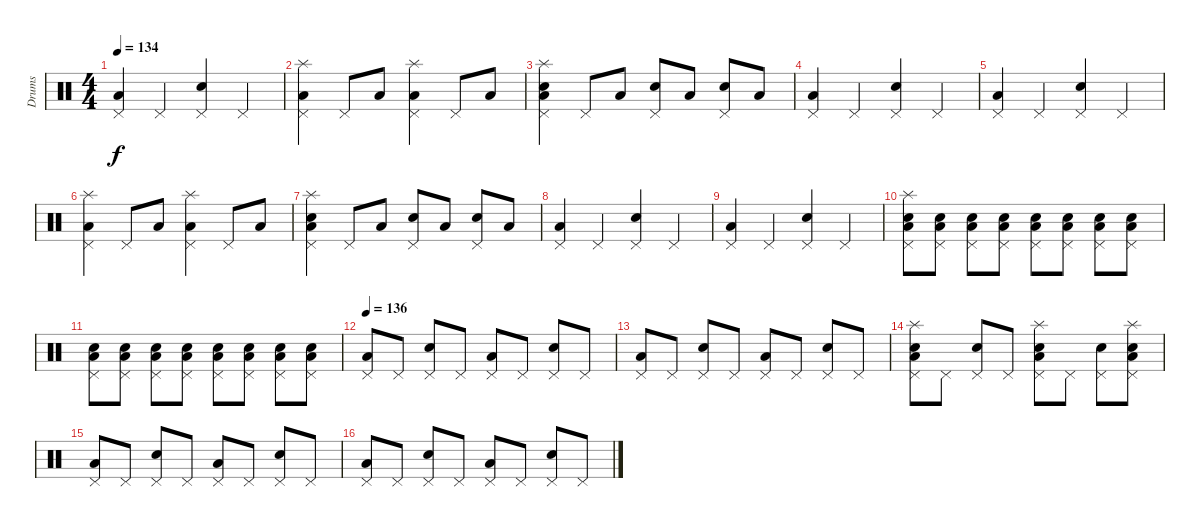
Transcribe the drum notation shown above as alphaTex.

\track ("Drums" "Drums") {instrument percussion}
\staff {score}
\articulation defaults
\ts (4 4)
\tempo 134
\clef neutral
\ks c
("Low Floor Tom (hit)" "Pedal Hi-Hat (hit)").4{dy f} "Pedal Hi-Hat (hit)".4 ("Electric Snare (hit)" "Pedal Hi-Hat (hit)").4 "Pedal Hi-Hat (hit)".4 |
("Low Floor Tom (hit)" "Pedal Hi-Hat (hit)" "Splash (hit)").4 "Pedal Hi-Hat (hit)".8 "Low Floor Tom (hit)".8 ("Low Floor Tom (hit)" "Pedal Hi-Hat (hit)" "Splash (hit)").4 "Pedal Hi-Hat (hit)".8 "Low Floor Tom (hit)".8 |
("Electric Snare (hit)" "Low Floor Tom (hit)" "Pedal Hi-Hat (hit)" "Splash (hit)").4 "Pedal Hi-Hat (hit)".8 "Low Floor Tom (hit)".8 ("Electric Snare (hit)" "Pedal Hi-Hat (hit)").8 "Low Floor Tom (hit)".8 ("Electric Snare (hit)" "Pedal Hi-Hat (hit)").8 "Low Floor Tom (hit)".8 |
("Low Floor Tom (hit)" "Pedal Hi-Hat (hit)").4 "Pedal Hi-Hat (hit)".4 ("Electric Snare (hit)" "Pedal Hi-Hat (hit)").4 "Pedal Hi-Hat (hit)".4 |
("Low Floor Tom (hit)" "Pedal Hi-Hat (hit)").4 "Pedal Hi-Hat (hit)".4 ("Electric Snare (hit)" "Pedal Hi-Hat (hit)").4 "Pedal Hi-Hat (hit)".4 |
("Low Floor Tom (hit)" "Pedal Hi-Hat (hit)" "Splash (hit)").4 "Pedal Hi-Hat (hit)".8 "Low Floor Tom (hit)".8 ("Low Floor Tom (hit)" "Pedal Hi-Hat (hit)" "Splash (hit)").4 "Pedal Hi-Hat (hit)".8 "Low Floor Tom (hit)".8 |
("Electric Snare (hit)" "Low Floor Tom (hit)" "Pedal Hi-Hat (hit)" "Splash (hit)").4 "Pedal Hi-Hat (hit)".8 "Low Floor Tom (hit)".8 ("Electric Snare (hit)" "Pedal Hi-Hat (hit)").8 "Low Floor Tom (hit)".8 ("Electric Snare (hit)" "Pedal Hi-Hat (hit)").8 "Low Floor Tom (hit)".8 |
("Low Floor Tom (hit)" "Pedal Hi-Hat (hit)").4 "Pedal Hi-Hat (hit)".4 ("Electric Snare (hit)" "Pedal Hi-Hat (hit)").4 "Pedal Hi-Hat (hit)".4 |
("Low Floor Tom (hit)" "Pedal Hi-Hat (hit)").4 "Pedal Hi-Hat (hit)".4 ("Electric Snare (hit)" "Pedal Hi-Hat (hit)").4 "Pedal Hi-Hat (hit)".4 |
("Electric Snare (hit)" "Low Floor Tom (hit)" "Pedal Hi-Hat (hit)" "Splash (hit)").8 ("Electric Snare (hit)" "Low Floor Tom (hit)" "Pedal Hi-Hat (hit)").8 ("Electric Snare (hit)" "Low Floor Tom (hit)" "Pedal Hi-Hat (hit)").8 ("Electric Snare (hit)" "Low Floor Tom (hit)" "Pedal Hi-Hat (hit)").8 ("Electric Snare (hit)" "Low Floor Tom (hit)" "Pedal Hi-Hat (hit)").8 ("Electric Snare (hit)" "Low Floor Tom (hit)" "Pedal Hi-Hat (hit)").8 ("Electric Snare (hit)" "Low Floor Tom (hit)" "Pedal Hi-Hat (hit)").8 ("Electric Snare (hit)" "Low Floor Tom (hit)" "Pedal Hi-Hat (hit)").8 |
("Electric Snare (hit)" "Low Floor Tom (hit)" "Pedal Hi-Hat (hit)").8 ("Electric Snare (hit)" "Low Floor Tom (hit)" "Pedal Hi-Hat (hit)").8 ("Electric Snare (hit)" "Low Floor Tom (hit)" "Pedal Hi-Hat (hit)").8 ("Electric Snare (hit)" "Low Floor Tom (hit)" "Pedal Hi-Hat (hit)").8 ("Electric Snare (hit)" "Low Floor Tom (hit)" "Pedal Hi-Hat (hit)").8 ("Electric Snare (hit)" "Low Floor Tom (hit)" "Pedal Hi-Hat (hit)").8 ("Electric Snare (hit)" "Low Floor Tom (hit)" "Pedal Hi-Hat (hit)").8 ("Electric Snare (hit)" "Low Floor Tom (hit)" "Pedal Hi-Hat (hit)").8 |
\tempo 136
("Low Floor Tom (hit)" "Pedal Hi-Hat (hit)").8 "Pedal Hi-Hat (hit)".8 ("Electric Snare (hit)" "Pedal Hi-Hat (hit)").8 "Pedal Hi-Hat (hit)".8 ("Low Floor Tom (hit)" "Pedal Hi-Hat (hit)").8 "Pedal Hi-Hat (hit)".8 ("Electric Snare (hit)" "Pedal Hi-Hat (hit)").8 "Pedal Hi-Hat (hit)".8 |
("Low Floor Tom (hit)" "Pedal Hi-Hat (hit)").8 "Pedal Hi-Hat (hit)".8 ("Electric Snare (hit)" "Pedal Hi-Hat (hit)").8 "Pedal Hi-Hat (hit)".8 ("Low Floor Tom (hit)" "Pedal Hi-Hat (hit)").8 "Pedal Hi-Hat (hit)".8 ("Electric Snare (hit)" "Pedal Hi-Hat (hit)").8 "Pedal Hi-Hat (hit)".8 |
("Electric Snare (hit)" "Low Floor Tom (hit)" "Pedal Hi-Hat (hit)" "Splash (hit)").8 "Pedal Hi-Hat (hit)".8 ("Electric Snare (hit)" "Pedal Hi-Hat (hit)").8 "Pedal Hi-Hat (hit)".8 ("Electric Snare (hit)" "Low Floor Tom (hit)" "Pedal Hi-Hat (hit)" "Splash (hit)").8 "Pedal Hi-Hat (hit)".8 ("Electric Snare (hit)" "Pedal Hi-Hat (hit)").8 ("Electric Snare (hit)" "Low Floor Tom (hit)" "Pedal Hi-Hat (hit)" "Splash (hit)").8 |
("Low Floor Tom (hit)" "Pedal Hi-Hat (hit)").8 "Pedal Hi-Hat (hit)".8 ("Electric Snare (hit)" "Pedal Hi-Hat (hit)").8 "Pedal Hi-Hat (hit)".8 ("Low Floor Tom (hit)" "Pedal Hi-Hat (hit)").8 "Pedal Hi-Hat (hit)".8 ("Electric Snare (hit)" "Pedal Hi-Hat (hit)").8 "Pedal Hi-Hat (hit)".8 |
("Low Floor Tom (hit)" "Pedal Hi-Hat (hit)").8 "Pedal Hi-Hat (hit)".8 ("Electric Snare (hit)" "Pedal Hi-Hat (hit)").8 "Pedal Hi-Hat (hit)".8 ("Low Floor Tom (hit)" "Pedal Hi-Hat (hit)").8 "Pedal Hi-Hat (hit)".8 ("Electric Snare (hit)" "Pedal Hi-Hat (hit)").8 "Pedal Hi-Hat (hit)".8
